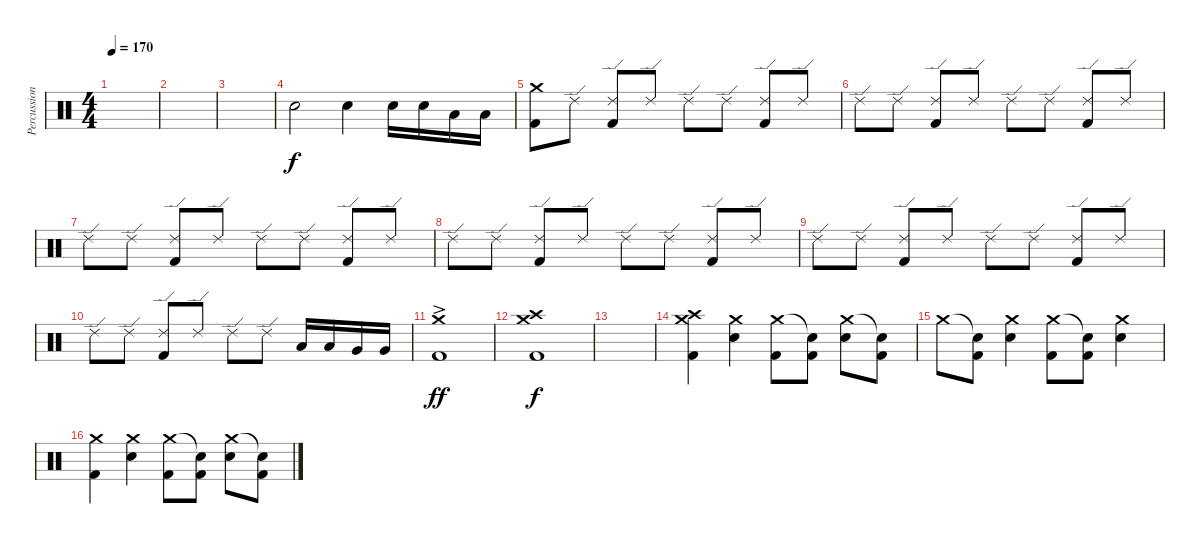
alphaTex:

\track ("Percussion" "Percussion") {instrument percussion}
\staff {score}
\articulation defaults
\ts (4 4)
\tempo 170
\clef neutral
\ks c
|
|
|
"Snare (hit)".2 "Snare (hit)".4 "Snare (hit)".16 "Snare (hit)".16 "Low Floor Tom (hit)".16 "Low Floor Tom (hit)".16 |
("Crash medium (hit)" "Kick (hit) 2").8 "Ride (edge) 2".8 ("Ride (edge) 2" "Kick (hit) 2").8 "Ride (edge) 2".8 "Ride (edge) 2".8 "Ride (edge) 2".8 ("Ride (edge) 2" "Kick (hit) 2").8 "Ride (edge) 2".8 |
"Ride (edge) 2".8 "Ride (edge) 2".8 ("Ride (edge) 2" "Kick (hit) 2").8 "Ride (edge) 2".8 "Ride (edge) 2".8 "Ride (edge) 2".8 ("Ride (edge) 2" "Kick (hit) 2").8 "Ride (edge) 2".8 |
"Ride (edge) 2".8 "Ride (edge) 2".8 ("Ride (edge) 2" "Kick (hit) 2").8 "Ride (edge) 2".8 "Ride (edge) 2".8 "Ride (edge) 2".8 ("Ride (edge) 2" "Kick (hit) 2").8 "Ride (edge) 2".8 |
"Ride (edge) 2".8 "Ride (edge) 2".8 ("Ride (edge) 2" "Kick (hit) 2").8 "Ride (edge) 2".8 "Ride (edge) 2".8 "Ride (edge) 2".8 ("Ride (edge) 2" "Kick (hit) 2").8 "Ride (edge) 2".8 |
"Ride (edge) 2".8 "Ride (edge) 2".8 ("Ride (edge) 2" "Kick (hit) 2").8 "Ride (edge) 2".8 "Ride (edge) 2".8 "Ride (edge) 2".8 ("Ride (edge) 2" "Kick (hit) 2").8 "Ride (edge) 2".8 |
"Ride (edge) 2".8 "Ride (edge) 2".8 ("Ride (edge) 2" "Kick (hit) 2").8 "Ride (edge) 2".8 "Ride (edge) 2".8 "Ride (edge) 2".8 "Low Tom (hit)".16 "Low Tom (hit)".16 "Very Low Tom (hit)".16 "Very Low Tom (hit)".16 |
("Crash medium (hit)"{ac} "Kick (hit) 2").1{dy ff} |
("Crash medium (hit)" "Crash high (hit)" "Kick (hit) 2").1{dy f} |
|
("Crash medium (hit)" "Crash high (hit)" "Kick (hit) 2").4 ("Crash medium (hit)" "Electric Snare (hit)").4 ("Crash medium (hit)" "Kick (hit) 2").8 ("Snare (hit)"{t} "Kick (hit) 2").8 ("Crash medium (hit)" "Electric Snare (hit)").8 ("Snare (hit)"{t} "Kick (hit) 2").8 |
"Crash medium (hit)".8 ("Snare (hit)"{t} "Kick (hit) 2").8 ("Crash medium (hit)" "Electric Snare (hit)").4 ("Crash medium (hit)" "Kick (hit) 2").8 ("Snare (hit)"{t} "Kick (hit) 2").8 ("Crash medium (hit)" "Electric Snare (hit)").4 |
("Crash medium (hit)" "Kick (hit) 2").4 ("Crash medium (hit)" "Electric Snare (hit)").4 ("Crash medium (hit)" "Kick (hit) 2").8 ("Snare (hit)"{t} "Kick (hit) 2").8 ("Crash medium (hit)" "Electric Snare (hit)").8 ("Snare (hit)"{t} "Kick (hit) 2").8
